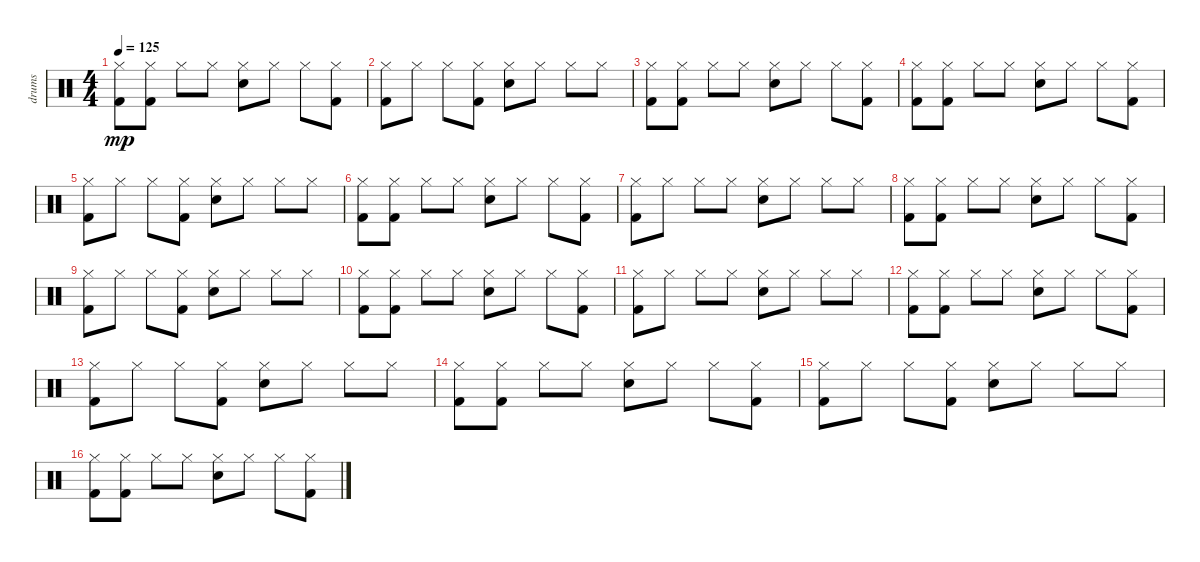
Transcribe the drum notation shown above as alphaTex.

\track ("drums" "drums") {instrument percussion}
\staff {score}
\articulation defaults
\ts (4 4)
\tempo 125
\clef neutral
\ks c
("Hi-Hat (closed)" "Kick (hit) 2").8{dy mp} ("Hi-Hat (closed)" "Kick (hit) 2").8 "Hi-Hat (closed)".8 "Hi-Hat (closed)".8 ("Hi-Hat (closed)" "Snare (hit) 2").8 "Hi-Hat (closed)".8 "Hi-Hat (closed)".8 ("Hi-Hat (closed)" "Kick (hit) 2").8 |
("Hi-Hat (closed)" "Kick (hit) 2").8 "Hi-Hat (closed)".8 "Hi-Hat (closed)".8 ("Hi-Hat (closed)" "Kick (hit) 2").8 ("Hi-Hat (closed)" "Snare (hit) 2").8 "Hi-Hat (closed)".8 "Hi-Hat (closed)".8 "Hi-Hat (closed)".8 |
("Hi-Hat (closed)" "Kick (hit) 2").8 ("Hi-Hat (closed)" "Kick (hit) 2").8 "Hi-Hat (closed)".8 "Hi-Hat (closed)".8 ("Hi-Hat (closed)" "Snare (hit) 2").8 "Hi-Hat (closed)".8 "Hi-Hat (closed)".8 ("Hi-Hat (closed)" "Kick (hit) 2").8 |
("Hi-Hat (closed)" "Kick (hit) 2").8 ("Hi-Hat (closed)" "Kick (hit) 2").8 "Hi-Hat (closed)".8 "Hi-Hat (closed)".8 ("Hi-Hat (closed)" "Snare (hit) 2").8 "Hi-Hat (closed)".8 "Hi-Hat (closed)".8 ("Hi-Hat (closed)" "Kick (hit) 2").8 |
("Hi-Hat (closed)" "Kick (hit) 2").8 "Hi-Hat (closed)".8 "Hi-Hat (closed)".8 ("Hi-Hat (closed)" "Kick (hit) 2").8 ("Hi-Hat (closed)" "Snare (hit) 2").8 "Hi-Hat (closed)".8 "Hi-Hat (closed)".8 "Hi-Hat (closed)".8 |
("Hi-Hat (closed)" "Kick (hit) 2").8 ("Hi-Hat (closed)" "Kick (hit) 2").8 "Hi-Hat (closed)".8 "Hi-Hat (closed)".8 ("Hi-Hat (closed)" "Snare (hit) 2").8 "Hi-Hat (closed)".8 "Hi-Hat (closed)".8 ("Hi-Hat (closed)" "Kick (hit) 2").8 |
("Hi-Hat (closed)" "Kick (hit) 2").8 "Hi-Hat (closed)".8 "Hi-Hat (closed)".8 "Hi-Hat (closed)".8 ("Hi-Hat (closed)" "Snare (hit) 2").8 "Hi-Hat (closed)".8 "Hi-Hat (closed)".8 "Hi-Hat (closed)".8 |
("Hi-Hat (closed)" "Kick (hit) 2").8 ("Hi-Hat (closed)" "Kick (hit) 2").8 "Hi-Hat (closed)".8 "Hi-Hat (closed)".8 ("Hi-Hat (closed)" "Snare (hit) 2").8 "Hi-Hat (closed)".8 "Hi-Hat (closed)".8 ("Hi-Hat (closed)" "Kick (hit) 2").8 |
("Hi-Hat (closed)" "Kick (hit) 2").8 "Hi-Hat (closed)".8 "Hi-Hat (closed)".8 ("Hi-Hat (closed)" "Kick (hit) 2").8 ("Hi-Hat (closed)" "Snare (hit) 2").8 "Hi-Hat (closed)".8 "Hi-Hat (closed)".8 "Hi-Hat (closed)".8 |
("Hi-Hat (closed)" "Kick (hit) 2").8 ("Hi-Hat (closed)" "Kick (hit) 2").8 "Hi-Hat (closed)".8 "Hi-Hat (closed)".8 ("Hi-Hat (closed)" "Snare (hit) 2").8 "Hi-Hat (closed)".8 "Hi-Hat (closed)".8 ("Hi-Hat (closed)" "Kick (hit) 2").8 |
("Hi-Hat (closed)" "Kick (hit) 2").8 "Hi-Hat (closed)".8 "Hi-Hat (closed)".8 "Hi-Hat (closed)".8 ("Hi-Hat (closed)" "Snare (hit) 2").8 "Hi-Hat (closed)".8 "Hi-Hat (closed)".8 "Hi-Hat (closed)".8 |
("Hi-Hat (closed)" "Kick (hit) 2").8 ("Hi-Hat (closed)" "Kick (hit) 2").8 "Hi-Hat (closed)".8 "Hi-Hat (closed)".8 ("Hi-Hat (closed)" "Snare (hit) 2").8 "Hi-Hat (closed)".8 "Hi-Hat (closed)".8 ("Hi-Hat (closed)" "Kick (hit) 2").8 |
("Hi-Hat (closed)" "Kick (hit) 2").8 "Hi-Hat (closed)".8 "Hi-Hat (closed)".8 ("Hi-Hat (closed)" "Kick (hit) 2").8 ("Hi-Hat (closed)" "Snare (hit) 2").8 "Hi-Hat (closed)".8 "Hi-Hat (closed)".8 "Hi-Hat (closed)".8 |
("Hi-Hat (closed)" "Kick (hit) 2").8 ("Hi-Hat (closed)" "Kick (hit) 2").8 "Hi-Hat (closed)".8 "Hi-Hat (closed)".8 ("Hi-Hat (closed)" "Snare (hit) 2").8 "Hi-Hat (closed)".8 "Hi-Hat (closed)".8 ("Hi-Hat (closed)" "Kick (hit) 2").8 |
("Hi-Hat (closed)" "Kick (hit) 2").8 "Hi-Hat (closed)".8 "Hi-Hat (closed)".8 ("Hi-Hat (closed)" "Kick (hit) 2").8 ("Hi-Hat (closed)" "Snare (hit) 2").8 "Hi-Hat (closed)".8 "Hi-Hat (closed)".8 "Hi-Hat (closed)".8 |
("Hi-Hat (closed)" "Kick (hit) 2").8 ("Hi-Hat (closed)" "Kick (hit) 2").8 "Hi-Hat (closed)".8 "Hi-Hat (closed)".8 ("Hi-Hat (closed)" "Snare (hit) 2").8 "Hi-Hat (closed)".8 "Hi-Hat (closed)".8 ("Hi-Hat (closed)" "Kick (hit) 2").8
